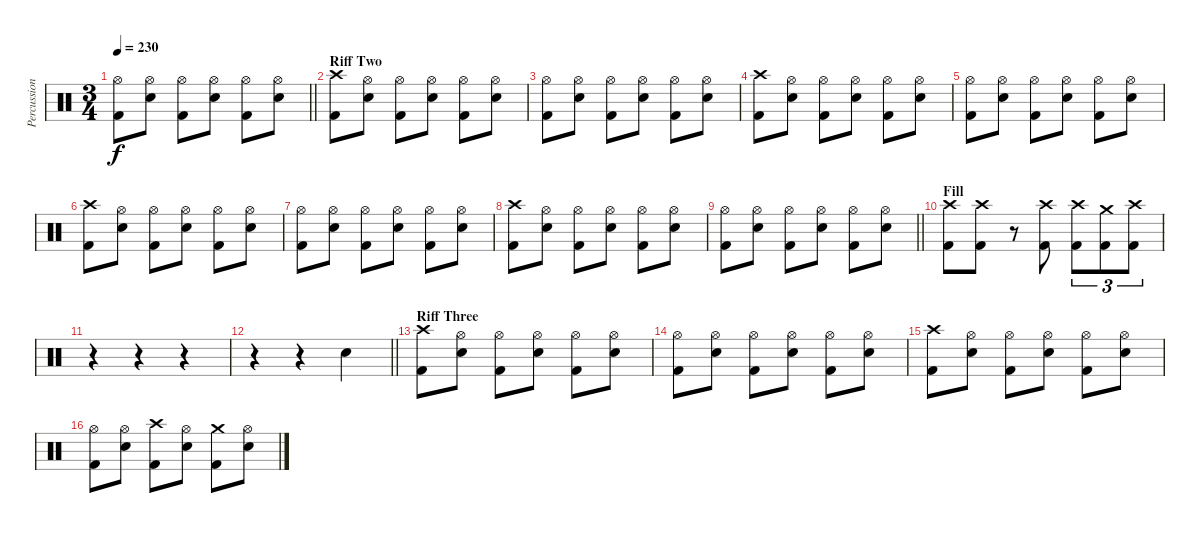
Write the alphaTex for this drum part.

\track ("Percussion" "Percussion") {instrument percussion}
\staff {score}
\articulation defaults
\ts (3 4)
\tempo 230
\clef neutral
\barLineRight lightlight
\ks c
("Hi-Hat (open)" "Kick (hit) 2").8{dy f} ("Hi-Hat (open)" "Electric Snare (hit)").8 ("Hi-Hat (open)" "Kick (hit) 2").8 ("Hi-Hat (open)" "Electric Snare (hit)").8 ("Hi-Hat (open)" "Kick (hit) 2").8 ("Hi-Hat (open)" "Electric Snare (hit)").8 |
\section ("" "Riff Two")
("Crash high (hit)" "Kick (hit) 2").8 ("Hi-Hat (open)" "Electric Snare (hit)").8 ("Hi-Hat (open)" "Kick (hit) 2").8 ("Hi-Hat (open)" "Electric Snare (hit)").8 ("Hi-Hat (open)" "Kick (hit) 2").8 ("Hi-Hat (open)" "Electric Snare (hit)").8 |
("Hi-Hat (open)" "Kick (hit) 2").8 ("Hi-Hat (open)" "Electric Snare (hit)").8 ("Hi-Hat (open)" "Kick (hit) 2").8 ("Hi-Hat (open)" "Electric Snare (hit)").8 ("Hi-Hat (open)" "Kick (hit) 2").8 ("Hi-Hat (open)" "Electric Snare (hit)").8 |
("Crash high (hit)" "Kick (hit) 2").8 ("Hi-Hat (open)" "Electric Snare (hit)").8 ("Hi-Hat (open)" "Kick (hit) 2").8 ("Hi-Hat (open)" "Electric Snare (hit)").8 ("Hi-Hat (open)" "Kick (hit) 2").8 ("Hi-Hat (open)" "Electric Snare (hit)").8 |
("Hi-Hat (open)" "Kick (hit) 2").8 ("Hi-Hat (open)" "Electric Snare (hit)").8 ("Hi-Hat (open)" "Kick (hit) 2").8 ("Hi-Hat (open)" "Electric Snare (hit)").8 ("Hi-Hat (open)" "Kick (hit) 2").8 ("Hi-Hat (open)" "Electric Snare (hit)").8 |
("Crash high (hit)" "Kick (hit) 2").8 ("Hi-Hat (open)" "Electric Snare (hit)").8 ("Hi-Hat (open)" "Kick (hit) 2").8 ("Hi-Hat (open)" "Electric Snare (hit)").8 ("Hi-Hat (open)" "Kick (hit) 2").8 ("Hi-Hat (open)" "Electric Snare (hit)").8 |
("Hi-Hat (open)" "Kick (hit) 2").8 ("Hi-Hat (open)" "Electric Snare (hit)").8 ("Hi-Hat (open)" "Kick (hit) 2").8 ("Hi-Hat (open)" "Electric Snare (hit)").8 ("Hi-Hat (open)" "Kick (hit) 2").8 ("Hi-Hat (open)" "Electric Snare (hit)").8 |
("Crash high (hit)" "Kick (hit) 2").8 ("Hi-Hat (open)" "Electric Snare (hit)").8 ("Hi-Hat (open)" "Kick (hit) 2").8 ("Hi-Hat (open)" "Electric Snare (hit)").8 ("Hi-Hat (open)" "Kick (hit) 2").8 ("Hi-Hat (open)" "Electric Snare (hit)").8 |
\barLineRight lightlight
("Hi-Hat (open)" "Kick (hit) 2").8 ("Hi-Hat (open)" "Electric Snare (hit)").8 ("Hi-Hat (open)" "Kick (hit) 2").8 ("Hi-Hat (open)" "Electric Snare (hit)").8 ("Hi-Hat (open)" "Kick (hit) 2").8 ("Hi-Hat (open)" "Electric Snare (hit)").8 |
\section ("" "Fill")
("Crash high (hit)" "Kick (hit) 2").8 ("Crash high (hit)" "Kick (hit) 2").8 r.8 ("Crash high (hit)" "Kick (hit) 2").8 ("Crash high (hit)" "Kick (hit) 2").8{tu (3 2)} ("Crash medium (hit)" "Kick (hit) 2").8{tu (3 2)} ("Crash high (hit)" "Kick (hit) 2").8{tu (3 2)} |
r.4 r.4 r.4 |
\barLineRight lightlight
r.4 r.4 "Electric Snare (hit)".4 |
\section ("" "Riff Three")
("Crash high (hit)" "Kick (hit) 2").8 ("Hi-Hat (open)" "Electric Snare (hit)").8 ("Hi-Hat (open)" "Kick (hit) 2").8 ("Hi-Hat (open)" "Electric Snare (hit)").8 ("Hi-Hat (open)" "Kick (hit) 2").8 ("Hi-Hat (open)" "Electric Snare (hit)").8 |
("Hi-Hat (open)" "Kick (hit) 2").8 ("Hi-Hat (open)" "Electric Snare (hit)").8 ("Hi-Hat (open)" "Kick (hit) 2").8 ("Hi-Hat (open)" "Electric Snare (hit)").8 ("Hi-Hat (open)" "Kick (hit) 2").8 ("Hi-Hat (open)" "Electric Snare (hit)").8 |
("Crash high (hit)" "Kick (hit) 2").8 ("Hi-Hat (open)" "Electric Snare (hit)").8 ("Hi-Hat (open)" "Kick (hit) 2").8 ("Hi-Hat (open)" "Electric Snare (hit)").8 ("Hi-Hat (open)" "Kick (hit) 2").8 ("Hi-Hat (open)" "Electric Snare (hit)").8 |
("Hi-Hat (open)" "Kick (hit) 2").8 ("Hi-Hat (open)" "Electric Snare (hit)").8 ("Crash high (hit)" "Kick (hit) 2").8 ("Hi-Hat (open)" "Electric Snare (hit)").8 ("Crash medium (hit)" "Kick (hit) 2").8 ("Hi-Hat (open)" "Electric Snare (hit)").8
